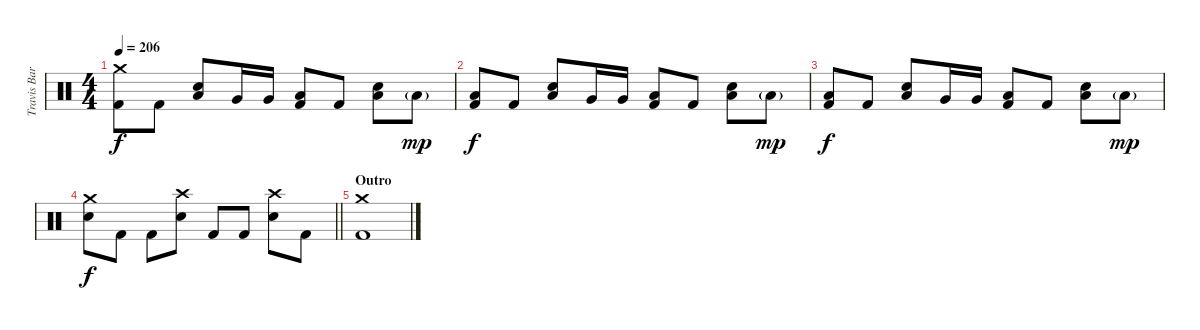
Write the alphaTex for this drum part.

\track ("Travis Barker - Drums" "Travis Bar") {instrument percussion}
\staff {score}
\articulation defaults
\ts (4 4)
\tempo 206
\clef neutral
\ks c
("Crash medium (hit)" "Kick (hit) 2").8{dy f} "Kick (hit) 2".8 ("Low Floor Tom (hit)" "Electric Snare (hit)").8 "Very Low Tom (hit)".16 "Very Low Tom (hit)".16 ("Low Floor Tom (hit)" "Kick (hit) 2").8 "Kick (hit) 2".8 ("Low Floor Tom (hit)" "Electric Snare (hit)").8 "Low Floor Tom (hit)"{g}.8{dy mp} |
("Low Floor Tom (hit)" "Kick (hit) 2").8{dy f} "Kick (hit) 2".8 ("Low Floor Tom (hit)" "Electric Snare (hit)").8 "Very Low Tom (hit)".16 "Very Low Tom (hit)".16 ("Low Floor Tom (hit)" "Kick (hit) 2").8 "Kick (hit) 2".8 ("Low Floor Tom (hit)" "Electric Snare (hit)").8 "Low Floor Tom (hit)"{g}.8{dy mp} |
("Low Floor Tom (hit)" "Kick (hit) 2").8{dy f} "Kick (hit) 2".8 ("Low Floor Tom (hit)" "Electric Snare (hit)").8 "Very Low Tom (hit)".16 "Very Low Tom (hit)".16 ("Low Floor Tom (hit)" "Kick (hit) 2").8 "Kick (hit) 2".8 ("Low Floor Tom (hit)" "Electric Snare (hit)").8 "Low Floor Tom (hit)"{g}.8{dy mp} |
\barLineRight lightlight
("Crash medium (hit)" "Electric Snare (hit)").8{dy f} "Kick (hit) 2".8 "Kick (hit) 2".8 ("Crash high (hit)" "Electric Snare (hit)").8 "Kick (hit) 2".8 "Kick (hit) 2".8 ("Crash high (hit)" "Electric Snare (hit)").8 "Kick (hit) 2".8 |
\section ("" "Outro")
("Crash medium (hit)" "Kick (hit) 2").1
